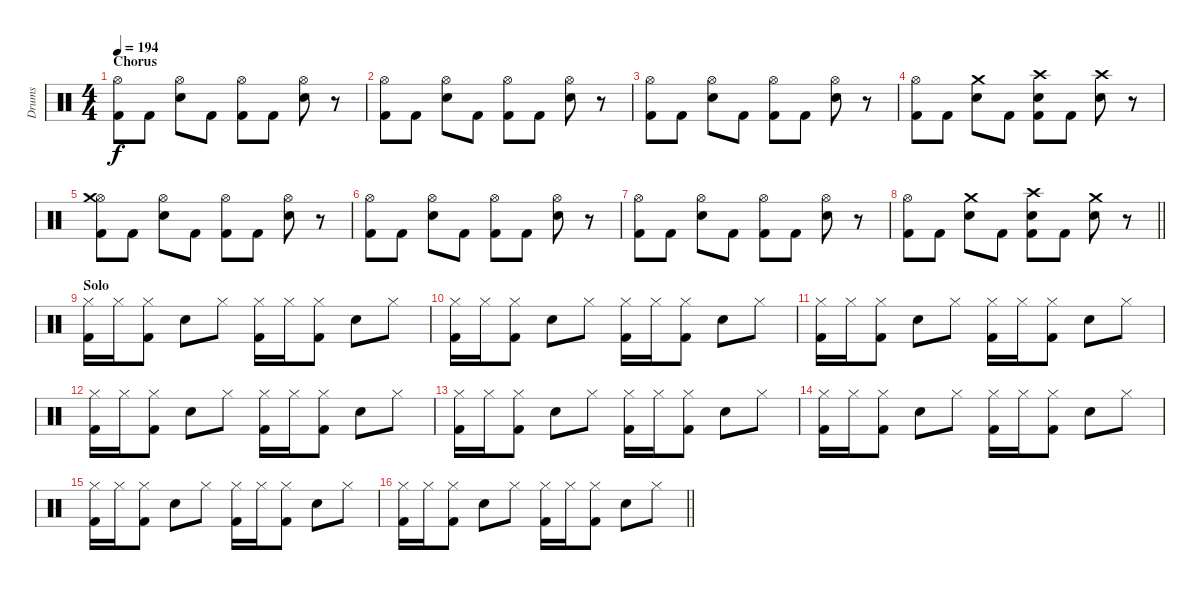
\track ("Drums" "Drums") {instrument percussion}
\staff {score}
\articulation defaults
\ts (4 4)
\section ("" "Chorus")
\tempo 194
\clef neutral
\ks c
("Hi-Hat (open)" "Kick (hit) 2").8{dy f} "Kick (hit) 2".8 ("Hi-Hat (open)" "Snare (hit) 2").8 "Kick (hit) 2".8 ("Hi-Hat (open)" "Kick (hit) 2").8 "Kick (hit) 2".8 ("Hi-Hat (open)" "Snare (hit) 2").8 r.8 |
("Hi-Hat (open)" "Kick (hit) 2").8 "Kick (hit) 2".8 ("Hi-Hat (open)" "Snare (hit) 2").8 "Kick (hit) 2".8 ("Hi-Hat (open)" "Kick (hit) 2").8 "Kick (hit) 2".8 ("Hi-Hat (open)" "Snare (hit) 2").8 r.8 |
("Hi-Hat (open)" "Kick (hit) 2").8 "Kick (hit) 2".8 ("Hi-Hat (open)" "Snare (hit) 2").8 "Kick (hit) 2".8 ("Hi-Hat (open)" "Kick (hit) 2").8 "Kick (hit) 2".8 ("Hi-Hat (open)" "Snare (hit) 2").8 r.8 |
("Hi-Hat (open)" "Kick (hit) 2").8 "Kick (hit) 2".8 ("Crash medium (hit)" "Snare (hit) 2").8 "Kick (hit) 2".8 ("Crash high (hit)" "Snare (hit) 2" "Kick (hit) 2").8 "Kick (hit) 2".8 ("Crash high (hit)" "Snare (hit) 2").8 r.8 |
("Hi-Hat (open)" "Crash medium (hit)" "Kick (hit) 2").8 "Kick (hit) 2".8 ("Hi-Hat (open)" "Snare (hit) 2").8 "Kick (hit) 2".8 ("Hi-Hat (open)" "Kick (hit) 2").8 "Kick (hit) 2".8 ("Hi-Hat (open)" "Snare (hit) 2").8 r.8 |
("Hi-Hat (open)" "Kick (hit) 2").8 "Kick (hit) 2".8 ("Hi-Hat (open)" "Snare (hit) 2").8 "Kick (hit) 2".8 ("Hi-Hat (open)" "Kick (hit) 2").8 "Kick (hit) 2".8 ("Hi-Hat (open)" "Snare (hit) 2").8 r.8 |
("Hi-Hat (open)" "Kick (hit) 2").8 "Kick (hit) 2".8 ("Hi-Hat (open)" "Snare (hit) 2").8 "Kick (hit) 2".8 ("Hi-Hat (open)" "Kick (hit) 2").8 "Kick (hit) 2".8 ("Hi-Hat (open)" "Snare (hit) 2").8 r.8 |
\barLineRight lightlight
("Hi-Hat (open)" "Kick (hit) 2").8 "Kick (hit) 2".8 ("Crash medium (hit)" "Snare (hit) 2").8 "Kick (hit) 2".8 ("Crash high (hit)" "Snare (hit) 2" "Kick (hit) 2").8 "Kick (hit) 2".8 ("Crash medium (hit)" "Snare (hit) 2").8 r.8 |
\section ("" "Solo")
("Hi-Hat (closed)" "Kick (hit) 2").16 "Hi-Hat (closed)".16 ("Hi-Hat (closed)" "Kick (hit) 2").8 "Snare (hit) 2".8 "Hi-Hat (closed)".8 ("Hi-Hat (closed)" "Kick (hit) 2").16 "Hi-Hat (closed)".16 ("Hi-Hat (closed)" "Kick (hit) 2").8 "Snare (hit) 2".8 "Hi-Hat (closed)".8 |
("Hi-Hat (closed)" "Kick (hit) 2").16 "Hi-Hat (closed)".16 ("Hi-Hat (closed)" "Kick (hit) 2").8 "Snare (hit) 2".8 "Hi-Hat (closed)".8 ("Hi-Hat (closed)" "Kick (hit) 2").16 "Hi-Hat (closed)".16 ("Hi-Hat (closed)" "Kick (hit) 2").8 "Snare (hit) 2".8 "Hi-Hat (closed)".8 |
("Hi-Hat (closed)" "Kick (hit) 2").16 "Hi-Hat (closed)".16 ("Hi-Hat (closed)" "Kick (hit) 2").8 "Snare (hit) 2".8 "Hi-Hat (closed)".8 ("Hi-Hat (closed)" "Kick (hit) 2").16 "Hi-Hat (closed)".16 ("Hi-Hat (closed)" "Kick (hit) 2").8 "Snare (hit) 2".8 "Hi-Hat (closed)".8 |
("Hi-Hat (closed)" "Kick (hit) 2").16 "Hi-Hat (closed)".16 ("Hi-Hat (closed)" "Kick (hit) 2").8 "Snare (hit) 2".8 "Hi-Hat (closed)".8 ("Hi-Hat (closed)" "Kick (hit) 2").16 "Hi-Hat (closed)".16 ("Hi-Hat (closed)" "Kick (hit) 2").8 "Snare (hit) 2".8 "Hi-Hat (closed)".8 |
("Hi-Hat (closed)" "Kick (hit) 2").16 "Hi-Hat (closed)".16 ("Hi-Hat (closed)" "Kick (hit) 2").8 "Snare (hit) 2".8 "Hi-Hat (closed)".8 ("Hi-Hat (closed)" "Kick (hit) 2").16 "Hi-Hat (closed)".16 ("Hi-Hat (closed)" "Kick (hit) 2").8 "Snare (hit) 2".8 "Hi-Hat (closed)".8 |
("Hi-Hat (closed)" "Kick (hit) 2").16 "Hi-Hat (closed)".16 ("Hi-Hat (closed)" "Kick (hit) 2").8 "Snare (hit) 2".8 "Hi-Hat (closed)".8 ("Hi-Hat (closed)" "Kick (hit) 2").16 "Hi-Hat (closed)".16 ("Hi-Hat (closed)" "Kick (hit) 2").8 "Snare (hit) 2".8 "Hi-Hat (closed)".8 |
("Hi-Hat (closed)" "Kick (hit) 2").16 "Hi-Hat (closed)".16 ("Hi-Hat (closed)" "Kick (hit) 2").8 "Snare (hit) 2".8 "Hi-Hat (closed)".8 ("Hi-Hat (closed)" "Kick (hit) 2").16 "Hi-Hat (closed)".16 ("Hi-Hat (closed)" "Kick (hit) 2").8 "Snare (hit) 2".8 "Hi-Hat (closed)".8 |
\barLineRight lightlight
("Hi-Hat (closed)" "Kick (hit) 2").16 "Hi-Hat (closed)".16 ("Hi-Hat (closed)" "Kick (hit) 2").8 "Snare (hit) 2".8 "Hi-Hat (closed)".8 ("Hi-Hat (closed)" "Kick (hit) 2").16 "Hi-Hat (closed)".16 ("Hi-Hat (closed)" "Kick (hit) 2").8 "Snare (hit) 2".8 "Hi-Hat (closed)".8
